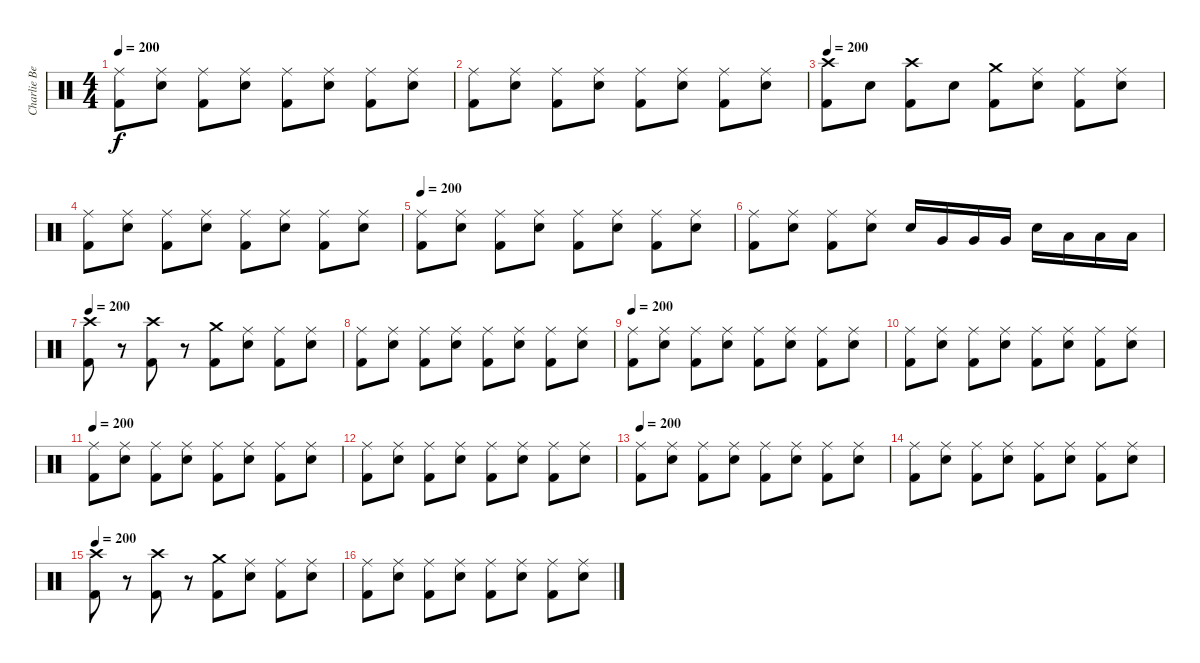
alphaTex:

\track ("Charlie Benante" "Charlie Be") {instrument percussion}
\staff {score}
\articulation defaults
\ts (4 4)
\tempo 200
\clef neutral
\ks c
("Ride (middle)" "Kick (hit) 2").8{dy f} ("Ride (middle)" "Electric Snare (hit)").8 ("Ride (middle)" "Kick (hit) 2").8 ("Ride (middle)" "Electric Snare (hit)").8 ("Ride (middle)" "Kick (hit) 2").8 ("Ride (middle)" "Electric Snare (hit)").8 ("Ride (middle)" "Kick (hit) 2").8 ("Ride (middle)" "Electric Snare (hit)").8 |
("Ride (middle)" "Kick (hit) 2").8 ("Ride (middle)" "Electric Snare (hit)").8 ("Ride (middle)" "Kick (hit) 2").8 ("Ride (middle)" "Electric Snare (hit)").8 ("Ride (middle)" "Kick (hit) 2").8 ("Ride (middle)" "Electric Snare (hit)").8 ("Ride (middle)" "Kick (hit) 2").8 ("Ride (middle)" "Electric Snare (hit)").8 |
\tempo 200
("Crash high (hit)" "Kick (hit) 2").8 "Electric Snare (hit)".8 ("Crash high (hit)" "Kick (hit) 2").8 "Electric Snare (hit)".8 ("Crash medium (hit)" "Kick (hit) 2").8 ("Ride (middle)" "Electric Snare (hit)").8 ("Ride (middle)" "Kick (hit) 2").8 ("Ride (middle)" "Electric Snare (hit)").8 |
("Ride (middle)" "Kick (hit) 2").8 ("Ride (middle)" "Electric Snare (hit)").8 ("Ride (middle)" "Kick (hit) 2").8 ("Ride (middle)" "Electric Snare (hit)").8 ("Ride (middle)" "Kick (hit) 2").8 ("Ride (middle)" "Electric Snare (hit)").8 ("Ride (middle)" "Kick (hit) 2").8 ("Ride (middle)" "Electric Snare (hit)").8 |
\tempo 200
("Ride (middle)" "Kick (hit) 2").8 ("Ride (middle)" "Electric Snare (hit)").8 ("Ride (middle)" "Kick (hit) 2").8 ("Ride (middle)" "Electric Snare (hit)").8 ("Ride (middle)" "Kick (hit) 2").8 ("Ride (middle)" "Electric Snare (hit)").8 ("Ride (middle)" "Kick (hit) 2").8 ("Ride (middle)" "Electric Snare (hit)").8 |
("Ride (middle)" "Kick (hit) 2").8 ("Ride (middle)" "Electric Snare (hit)").8 ("Ride (middle)" "Kick (hit) 2").8 ("Ride (middle)" "Electric Snare (hit)").8 "Electric Snare (hit)".16 "Very Low Tom (hit)".16 "Very Low Tom (hit)".16 "Very Low Tom (hit)".16 "Electric Snare (hit)".16 "Low Floor Tom (hit)".16 "Low Floor Tom (hit)".16 "Low Floor Tom (hit)".16 |
\tempo 200
("Crash high (hit)" "Kick (hit) 2").8 r.8 ("Crash high (hit)" "Kick (hit) 2").8 r.8 ("Crash medium (hit)" "Kick (hit) 2").8 ("Ride (middle)" "Electric Snare (hit)").8 ("Ride (middle)" "Kick (hit) 2").8 ("Ride (middle)" "Electric Snare (hit)").8 |
("Ride (middle)" "Kick (hit) 2").8 ("Ride (middle)" "Electric Snare (hit)").8 ("Ride (middle)" "Kick (hit) 2").8 ("Ride (middle)" "Electric Snare (hit)").8 ("Ride (middle)" "Kick (hit) 2").8 ("Ride (middle)" "Electric Snare (hit)").8 ("Ride (middle)" "Kick (hit) 2").8 ("Ride (middle)" "Electric Snare (hit)").8 |
\tempo 200
("Ride (middle)" "Kick (hit) 2").8 ("Ride (middle)" "Electric Snare (hit)").8 ("Ride (middle)" "Kick (hit) 2").8 ("Ride (middle)" "Electric Snare (hit)").8 ("Ride (middle)" "Kick (hit) 2").8 ("Ride (middle)" "Electric Snare (hit)").8 ("Ride (middle)" "Kick (hit) 2").8 ("Ride (middle)" "Electric Snare (hit)").8 |
("Ride (middle)" "Kick (hit) 2").8 ("Ride (middle)" "Electric Snare (hit)").8 ("Ride (middle)" "Kick (hit) 2").8 ("Ride (middle)" "Electric Snare (hit)").8 ("Ride (middle)" "Kick (hit) 2").8 ("Ride (middle)" "Electric Snare (hit)").8 ("Ride (middle)" "Kick (hit) 2").8 ("Ride (middle)" "Electric Snare (hit)").8 |
\tempo 200
("Ride (middle)" "Kick (hit) 2").8 ("Ride (middle)" "Electric Snare (hit)").8 ("Ride (middle)" "Kick (hit) 2").8 ("Ride (middle)" "Electric Snare (hit)").8 ("Ride (middle)" "Kick (hit) 2").8 ("Ride (middle)" "Electric Snare (hit)").8 ("Ride (middle)" "Kick (hit) 2").8 ("Ride (middle)" "Electric Snare (hit)").8 |
("Ride (middle)" "Kick (hit) 2").8 ("Ride (middle)" "Electric Snare (hit)").8 ("Ride (middle)" "Kick (hit) 2").8 ("Ride (middle)" "Electric Snare (hit)").8 ("Ride (middle)" "Kick (hit) 2").8 ("Ride (middle)" "Electric Snare (hit)").8 ("Ride (middle)" "Kick (hit) 2").8 ("Ride (middle)" "Electric Snare (hit)").8 |
\tempo 200
("Ride (middle)" "Kick (hit) 2").8 ("Ride (middle)" "Electric Snare (hit)").8 ("Ride (middle)" "Kick (hit) 2").8 ("Ride (middle)" "Electric Snare (hit)").8 ("Ride (middle)" "Kick (hit) 2").8 ("Ride (middle)" "Electric Snare (hit)").8 ("Ride (middle)" "Kick (hit) 2").8 ("Ride (middle)" "Electric Snare (hit)").8 |
("Ride (middle)" "Kick (hit) 2").8 ("Ride (middle)" "Electric Snare (hit)").8 ("Ride (middle)" "Kick (hit) 2").8 ("Ride (middle)" "Electric Snare (hit)").8 ("Ride (middle)" "Kick (hit) 2").8 ("Ride (middle)" "Electric Snare (hit)").8 ("Ride (middle)" "Kick (hit) 2").8 ("Ride (middle)" "Electric Snare (hit)").8 |
\tempo 200
("Crash high (hit)" "Kick (hit) 2").8 r.8 ("Crash high (hit)" "Kick (hit) 2").8 r.8 ("Crash medium (hit)" "Kick (hit) 2").8 ("Ride (middle)" "Electric Snare (hit)").8 ("Ride (middle)" "Kick (hit) 2").8 ("Ride (middle)" "Electric Snare (hit)").8 |
("Ride (middle)" "Kick (hit) 2").8 ("Ride (middle)" "Electric Snare (hit)").8 ("Ride (middle)" "Kick (hit) 2").8 ("Ride (middle)" "Electric Snare (hit)").8 ("Ride (middle)" "Kick (hit) 2").8 ("Ride (middle)" "Electric Snare (hit)").8 ("Ride (middle)" "Kick (hit) 2").8 ("Ride (middle)" "Electric Snare (hit)").8
